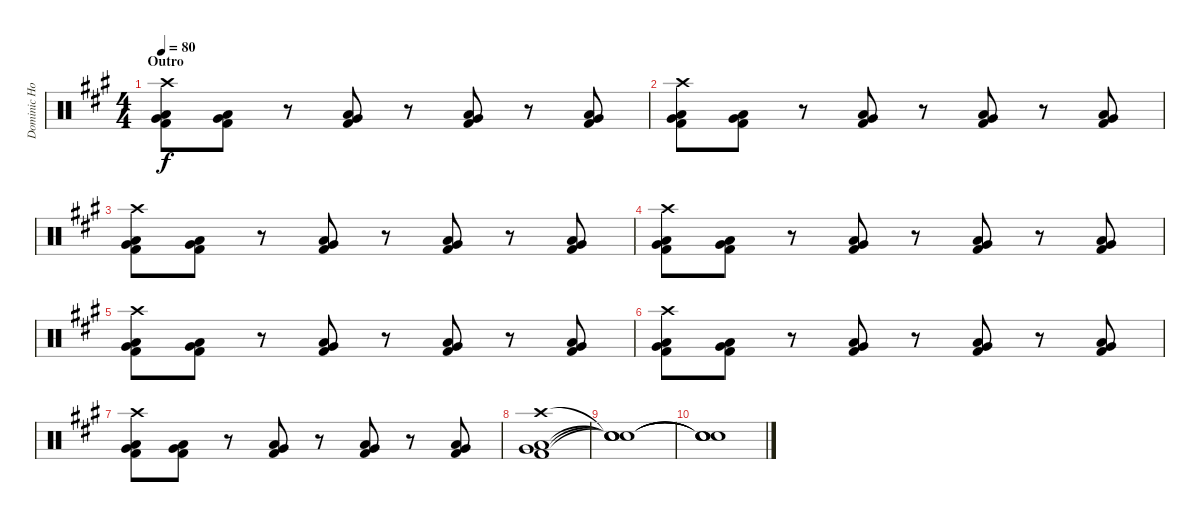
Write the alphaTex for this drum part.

\track ("Dominic Howard Drums" "Dominic Ho") {instrument percussion}
\staff {score}
\articulation defaults
\ts (4 4)
\section ("" "Outro")
\tempo 80
\clef neutral
\ks a
("Crash high (hit)" "Low Floor Tom (hit)" "Very Low Tom (hit)" "Kick (hit) 2").8{bd 30 dy f} ("Low Floor Tom (hit)" "Very Low Tom (hit)" "Kick (hit) 2").8{bd 30} r.8 ("Low Floor Tom (hit)" "Very Low Tom (hit)" "Kick (hit) 2").8{bd 30} r.8 ("Low Floor Tom (hit)" "Very Low Tom (hit)" "Kick (hit) 2").8{bd 30} r.8 ("Low Floor Tom (hit)" "Very Low Tom (hit)" "Kick (hit) 2").8{bd 30} |
("Crash high (hit)" "Low Floor Tom (hit)" "Very Low Tom (hit)" "Kick (hit) 2").8{bd 30} ("Low Floor Tom (hit)" "Very Low Tom (hit)" "Kick (hit) 2").8{bd 30} r.8 ("Low Floor Tom (hit)" "Very Low Tom (hit)" "Kick (hit) 2").8{bd 30} r.8 ("Low Floor Tom (hit)" "Very Low Tom (hit)" "Kick (hit) 2").8{bd 30} r.8 ("Low Floor Tom (hit)" "Very Low Tom (hit)" "Kick (hit) 2").8{bd 30} |
("Crash high (hit)" "Low Floor Tom (hit)" "Very Low Tom (hit)" "Kick (hit) 2").8{bd 30} ("Low Floor Tom (hit)" "Very Low Tom (hit)" "Kick (hit) 2").8{bd 30} r.8 ("Low Floor Tom (hit)" "Very Low Tom (hit)" "Kick (hit) 2").8{bd 30} r.8 ("Low Floor Tom (hit)" "Very Low Tom (hit)" "Kick (hit) 2").8{bd 30} r.8 ("Low Floor Tom (hit)" "Very Low Tom (hit)" "Kick (hit) 2").8{bd 30} |
("Crash high (hit)" "Low Floor Tom (hit)" "Very Low Tom (hit)" "Kick (hit) 2").8{bd 30} ("Low Floor Tom (hit)" "Very Low Tom (hit)" "Kick (hit) 2").8{bd 30} r.8 ("Low Floor Tom (hit)" "Very Low Tom (hit)" "Kick (hit) 2").8{bd 30} r.8 ("Low Floor Tom (hit)" "Very Low Tom (hit)" "Kick (hit) 2").8{bd 30} r.8 ("Low Floor Tom (hit)" "Very Low Tom (hit)" "Kick (hit) 2").8{bd 30} |
("Crash high (hit)" "Low Floor Tom (hit)" "Very Low Tom (hit)" "Kick (hit) 2").8{bd 30} ("Low Floor Tom (hit)" "Very Low Tom (hit)" "Kick (hit) 2").8{bd 30} r.8 ("Low Floor Tom (hit)" "Very Low Tom (hit)" "Kick (hit) 2").8{bd 30} r.8 ("Low Floor Tom (hit)" "Very Low Tom (hit)" "Kick (hit) 2").8{bd 30} r.8 ("Low Floor Tom (hit)" "Very Low Tom (hit)" "Kick (hit) 2").8{bd 30} |
("Crash high (hit)" "Low Floor Tom (hit)" "Very Low Tom (hit)" "Kick (hit) 2").8{bd 30} ("Low Floor Tom (hit)" "Very Low Tom (hit)" "Kick (hit) 2").8{bd 30} r.8 ("Low Floor Tom (hit)" "Very Low Tom (hit)" "Kick (hit) 2").8{bd 30} r.8 ("Low Floor Tom (hit)" "Very Low Tom (hit)" "Kick (hit) 2").8{bd 30} r.8 ("Low Floor Tom (hit)" "Very Low Tom (hit)" "Kick (hit) 2").8{bd 30} |
("Crash high (hit)" "Low Floor Tom (hit)" "Very Low Tom (hit)" "Kick (hit) 2").8{bd 30} ("Low Floor Tom (hit)" "Very Low Tom (hit)" "Kick (hit) 2").8{bd 30} r.8 ("Low Floor Tom (hit)" "Very Low Tom (hit)" "Kick (hit) 2").8{bd 30} r.8 ("Low Floor Tom (hit)" "Very Low Tom (hit)" "Kick (hit) 2").8{bd 30} r.8 ("Low Floor Tom (hit)" "Very Low Tom (hit)" "Kick (hit) 2").8{bd 30} |
("Crash high (hit)" "Low Floor Tom (hit)" "Very Low Tom (hit)" "Kick (hit) 2").1{bd 30} |
("Snare (hit)"{t} "Snare (hit)"{t} "Snare (hit)"{t} "Snare (hit)"{t}).1 |
("Snare (hit)"{t} "Snare (hit)"{t} "Snare (hit)"{t} "Snare (hit)"{t}).1
